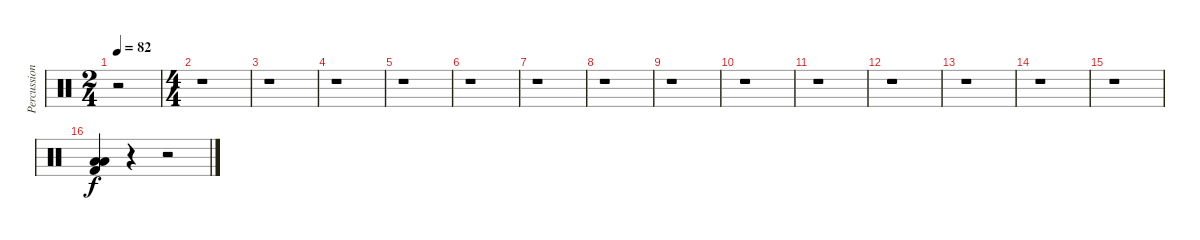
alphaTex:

\track ("Percussion" "Percussion") {instrument percussion}
\staff {score}
\articulation defaults
\ts (2 4)
\tempo 82
\clef neutral
\ks c
r.2{dy f} |
\ts (4 4)
r.1 |
r.1 |
r.1 |
r.1 |
r.1 |
r.1 |
r.1 |
r.1 |
r.1 |
r.1 |
r.1 |
r.1 |
r.1 |
r.1 |
("Low Tom (hit)" "Kick (hit) 2" "Low Floor Tom (hit)").4 r.4 r.2
